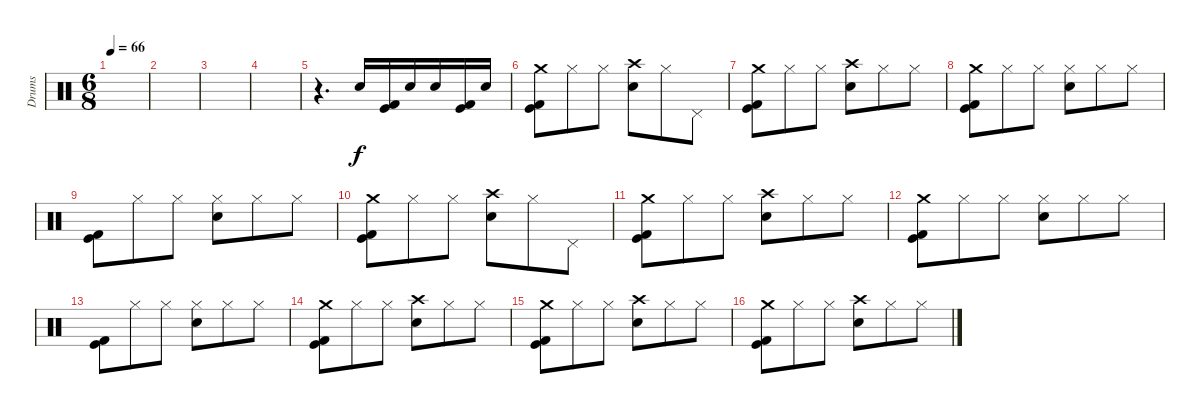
\track ("Drums" "Drums") {instrument percussion}
\staff {score}
\articulation defaults
\ts (6 8)
\tempo 66
\clef neutral
\ks c
|
|
|
|
r.4{d} "Electric Snare (hit)".16 ("Kick (hit)" "Kick (hit) 2").16 "Electric Snare (hit)".16 "Electric Snare (hit)".16 ("Kick (hit)" "Kick (hit) 2").16 "Electric Snare (hit)".16 |
("Crash medium (hit)" "Kick (hit) 2" "Kick (hit)").8 "Hi-Hat (closed)".8 "Hi-Hat (closed)".8 ("Crash high (hit)" "Electric Snare (hit)").8 "Hi-Hat (closed)".8 "Pedal Hi-Hat (hit)".8 |
("Crash medium (hit)" "Kick (hit) 2" "Kick (hit)").8 "Hi-Hat (closed)".8 "Hi-Hat (closed)".8 ("Crash high (hit)" "Electric Snare (hit)").8 "Hi-Hat (closed)".8 "Hi-Hat (closed)".8 |
("Crash medium (hit)" "Kick (hit) 2" "Kick (hit)").8 "Hi-Hat (closed)".8 "Hi-Hat (closed)".8 ("Hi-Hat (closed)" "Electric Snare (hit)").8 "Hi-Hat (closed)".8 "Hi-Hat (closed)".8 |
("Kick (hit) 2" "Kick (hit)").8 "Hi-Hat (closed)".8 "Hi-Hat (closed)".8 ("Hi-Hat (closed)" "Electric Snare (hit)").8 "Hi-Hat (closed)".8 "Hi-Hat (closed)".8 |
("Crash medium (hit)" "Kick (hit) 2" "Kick (hit)").8 "Hi-Hat (closed)".8 "Hi-Hat (closed)".8 ("Crash high (hit)" "Electric Snare (hit)").8 "Hi-Hat (closed)".8 "Pedal Hi-Hat (hit)".8 |
("Crash medium (hit)" "Kick (hit) 2" "Kick (hit)").8 "Hi-Hat (closed)".8 "Hi-Hat (closed)".8 ("Crash high (hit)" "Electric Snare (hit)").8 "Hi-Hat (closed)".8 "Hi-Hat (closed)".8 |
("Crash medium (hit)" "Kick (hit) 2" "Kick (hit)").8 "Hi-Hat (closed)".8 "Hi-Hat (closed)".8 ("Hi-Hat (closed)" "Electric Snare (hit)").8 "Hi-Hat (closed)".8 "Hi-Hat (closed)".8 |
("Kick (hit) 2" "Kick (hit)").8 "Hi-Hat (closed)".8 "Hi-Hat (closed)".8 ("Hi-Hat (closed)" "Electric Snare (hit)").8 "Hi-Hat (closed)".8 "Hi-Hat (closed)".8 |
("Crash medium (hit)" "Kick (hit) 2" "Kick (hit)").8 "Hi-Hat (closed)".8 "Hi-Hat (closed)".8 ("Crash high (hit)" "Electric Snare (hit)").8 "Hi-Hat (closed)".8 "Hi-Hat (closed)".8 |
("Crash medium (hit)" "Kick (hit) 2" "Kick (hit)").8 "Hi-Hat (closed)".8 "Hi-Hat (closed)".8 ("Crash high (hit)" "Electric Snare (hit)").8 "Hi-Hat (closed)".8 "Hi-Hat (closed)".8 |
("Crash medium (hit)" "Kick (hit) 2" "Kick (hit)").8 "Hi-Hat (closed)".8 "Hi-Hat (closed)".8 ("Crash high (hit)" "Electric Snare (hit)").8 "Hi-Hat (closed)".8 "Hi-Hat (closed)".8
